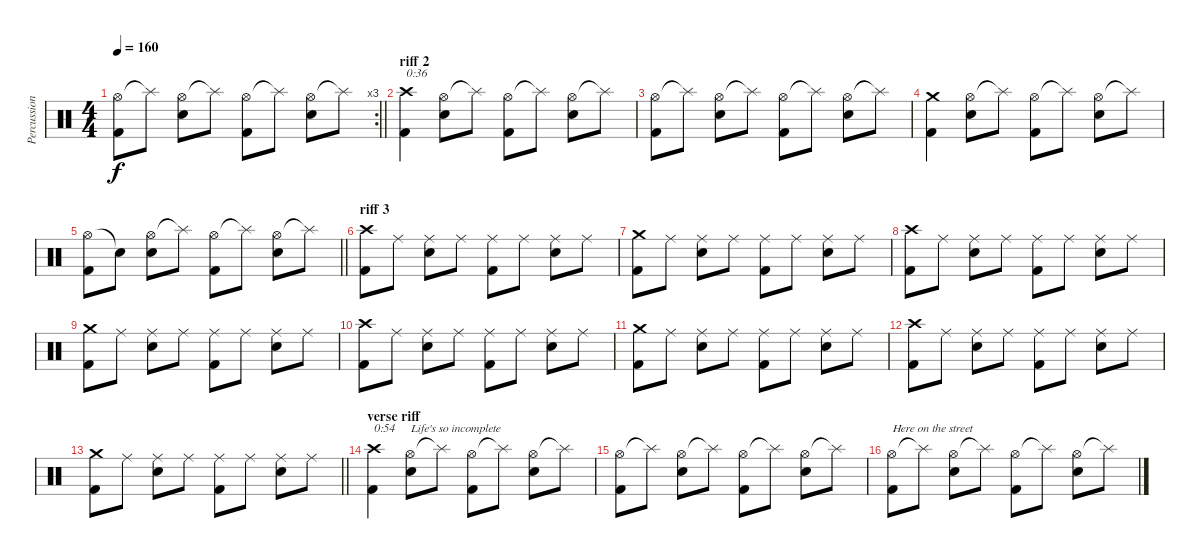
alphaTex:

\track ("Percussion" "Percussion") {mute instrument percussion}
\staff {score}
\articulation defaults
\rc 3
\ts (4 4)
\tempo 160
\clef neutral
\barLineRight lightlight
\ks c
("Hi-Hat (open)" "Kick (hit) 2").8{dy f} "Splash (hit)"{t}.8 ("Hi-Hat (open)" "Snare (hit) 2").8 "Splash (hit)"{t}.8 ("Hi-Hat (open)" "Kick (hit) 2").8 "Splash (hit)"{t}.8 ("Hi-Hat (open)" "Snare (hit) 2").8 "Splash (hit)"{t}.8 |
\section ("" "riff 2")
("Crash high (hit)" "Kick (hit) 2").4{txt "0:36"} ("Hi-Hat (open)" "Snare (hit) 2").8 "Splash (hit)"{t}.8 ("Hi-Hat (open)" "Kick (hit) 2").8 "Splash (hit)"{t}.8 ("Hi-Hat (open)" "Snare (hit) 2").8 "Splash (hit)"{t}.8 |
("Hi-Hat (open)" "Kick (hit) 2").8 "Splash (hit)"{t}.8 ("Hi-Hat (open)" "Snare (hit) 2").8 "Splash (hit)"{t}.8 ("Hi-Hat (open)" "Kick (hit) 2").8 "Splash (hit)"{t}.8 ("Hi-Hat (open)" "Snare (hit) 2").8 "Splash (hit)"{t}.8 |
("Crash medium (hit)" "Kick (hit) 2").4 ("Hi-Hat (open)" "Snare (hit) 2").8 "Splash (hit)"{t}.8 ("Hi-Hat (open)" "Kick (hit) 2").8 "Splash (hit)"{t}.8 ("Hi-Hat (open)" "Snare (hit) 2").8 "Splash (hit)"{t}.8 |
\barLineRight lightlight
("Hi-Hat (open)" "Kick (hit) 2").8 "Snare (hit)"{t}.8 ("Hi-Hat (open)" "Snare (hit) 2").8 "Splash (hit)"{t}.8 ("Hi-Hat (open)" "Kick (hit) 2").8 "Splash (hit)"{t}.8 ("Hi-Hat (open)" "Snare (hit) 2").8 "Splash (hit)"{t}.8 |
\section ("" "riff 3")
("Crash high (hit)" "Kick (hit) 2").8 "Ride (middle)".8 ("Ride (middle)" "Snare (hit) 2").8 "Ride (middle)".8 ("Ride (middle)" "Kick (hit) 2").8 "Ride (middle)".8 ("Ride (middle)" "Snare (hit) 2").8 "Ride (middle)".8 |
("Crash medium (hit)" "Kick (hit) 2").8 "Ride (middle)".8 ("Ride (middle)" "Snare (hit) 2").8 "Ride (middle)".8 ("Ride (middle)" "Kick (hit) 2").8 "Ride (middle)".8 ("Ride (middle)" "Snare (hit) 2").8 "Ride (middle)".8 |
("Crash high (hit)" "Kick (hit) 2").8 "Ride (middle)".8 ("Ride (middle)" "Snare (hit) 2").8 "Ride (middle)".8 ("Ride (middle)" "Kick (hit) 2").8 "Ride (middle)".8 ("Ride (middle)" "Snare (hit) 2").8 "Ride (middle)".8 |
("Crash medium (hit)" "Kick (hit) 2").8 "Ride (middle)".8 ("Ride (middle)" "Snare (hit) 2").8 "Ride (middle)".8 ("Ride (middle)" "Kick (hit) 2").8 "Ride (middle)".8 ("Ride (middle)" "Snare (hit) 2").8 "Ride (middle)".8 |
("Crash high (hit)" "Kick (hit) 2").8 "Ride (middle)".8 ("Ride (middle)" "Snare (hit) 2").8 "Ride (middle)".8 ("Ride (middle)" "Kick (hit) 2").8 "Ride (middle)".8 ("Ride (middle)" "Snare (hit) 2").8 "Ride (middle)".8 |
("Crash medium (hit)" "Kick (hit) 2").8 "Ride (middle)".8 ("Ride (middle)" "Snare (hit) 2").8 "Ride (middle)".8 ("Ride (middle)" "Kick (hit) 2").8 "Ride (middle)".8 ("Ride (middle)" "Snare (hit) 2").8 "Ride (middle)".8 |
("Crash high (hit)" "Kick (hit) 2").8 "Ride (middle)".8 ("Ride (middle)" "Snare (hit) 2").8 "Ride (middle)".8 ("Ride (middle)" "Kick (hit) 2").8 "Ride (middle)".8 ("Ride (middle)" "Snare (hit) 2").8 "Ride (middle)".8 |
\barLineRight lightlight
("Crash medium (hit)" "Kick (hit) 2").8 "Ride (middle)".8 ("Ride (middle)" "Snare (hit) 2").8 "Ride (middle)".8 ("Ride (middle)" "Kick (hit) 2").8 "Ride (middle)".8 ("Ride (middle)" "Snare (hit) 2").8 "Ride (middle)".8 |
\section ("" "verse riff")
("Crash high (hit)" "Kick (hit) 2").4{txt "0:54"} ("Hi-Hat (open)" "Snare (hit) 2").8{txt "Life's so incomplete"} "Splash (hit)"{t}.8 ("Hi-Hat (open)" "Kick (hit) 2").8 "Splash (hit)"{t}.8 ("Hi-Hat (open)" "Snare (hit) 2").8 "Splash (hit)"{t}.8 |
("Hi-Hat (open)" "Kick (hit) 2").8 "Splash (hit)"{t}.8 ("Hi-Hat (open)" "Snare (hit) 2").8 "Splash (hit)"{t}.8 ("Hi-Hat (open)" "Kick (hit) 2").8 "Splash (hit)"{t}.8 ("Hi-Hat (open)" "Snare (hit) 2").8 "Splash (hit)"{t}.8 |
("Hi-Hat (open)" "Kick (hit) 2").8{txt "Here on the street"} "Splash (hit)"{t}.8 ("Hi-Hat (open)" "Snare (hit) 2").8 "Splash (hit)"{t}.8 ("Hi-Hat (open)" "Kick (hit) 2").8 "Splash (hit)"{t}.8 ("Hi-Hat (open)" "Snare (hit) 2").8 "Splash (hit)"{t}.8
